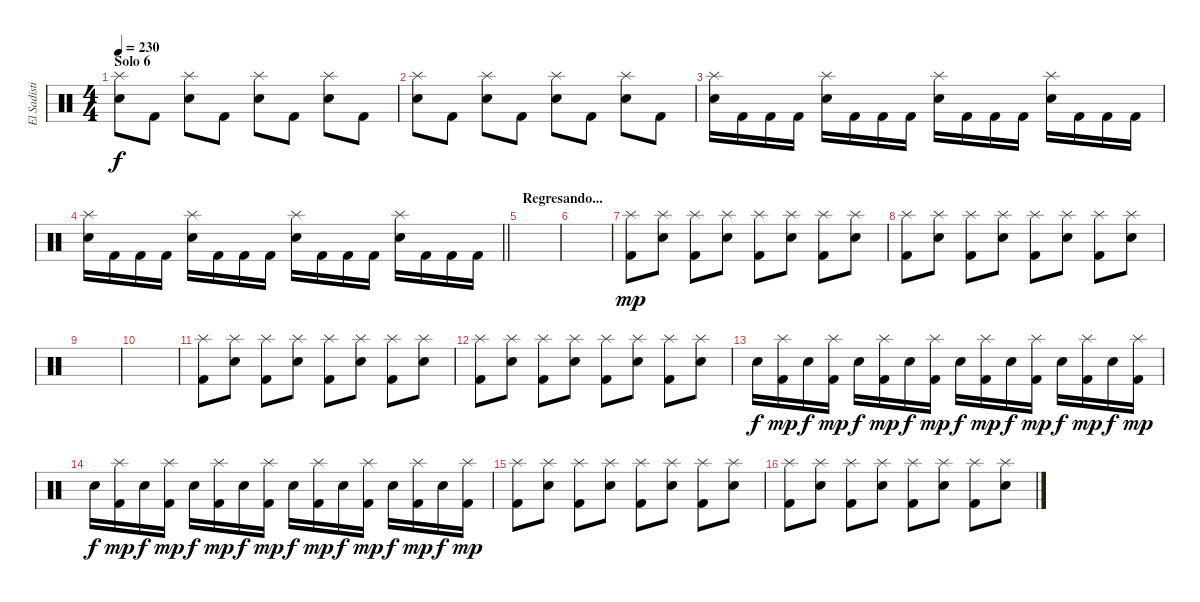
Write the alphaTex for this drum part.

\track ("El Sadistico" "El Sadisti") {instrument percussion}
\staff {score}
\articulation defaults
\ts (4 4)
\section ("" "Solo 6")
\tempo 230
\clef neutral
\ks c
("Splash (hit)" "Electric Snare (hit)").8{dy f} "Kick (hit) 2".8 ("Splash (hit)" "Electric Snare (hit)").8 "Kick (hit) 2".8 ("Splash (hit)" "Electric Snare (hit)").8 "Kick (hit) 2".8 ("Splash (hit)" "Electric Snare (hit)").8 "Kick (hit) 2".8 |
("Splash (hit)" "Electric Snare (hit)").8 "Kick (hit) 2".8 ("Splash (hit)" "Electric Snare (hit)").8 "Kick (hit) 2".8 ("Splash (hit)" "Electric Snare (hit)").8 "Kick (hit) 2".8 ("Splash (hit)" "Electric Snare (hit)").8 "Kick (hit) 2".8 |
("Splash (hit)" "Electric Snare (hit)").16 "Kick (hit) 2".16 "Kick (hit) 2".16 "Kick (hit) 2".16 ("Splash (hit)" "Electric Snare (hit)").16 "Kick (hit) 2".16 "Kick (hit) 2".16 "Kick (hit) 2".16 ("Splash (hit)" "Electric Snare (hit)").16 "Kick (hit) 2".16 "Kick (hit) 2".16 "Kick (hit) 2".16 ("Splash (hit)" "Electric Snare (hit)").16 "Kick (hit) 2".16 "Kick (hit) 2".16 "Kick (hit) 2".16 |
\barLineRight lightlight
("Splash (hit)" "Electric Snare (hit)").16 "Kick (hit) 2".16 "Kick (hit) 2".16 "Kick (hit) 2".16 ("Splash (hit)" "Electric Snare (hit)").16 "Kick (hit) 2".16 "Kick (hit) 2".16 "Kick (hit) 2".16 ("Splash (hit)" "Electric Snare (hit)").16 "Kick (hit) 2".16 "Kick (hit) 2".16 "Kick (hit) 2".16 ("Splash (hit)" "Electric Snare (hit)").16 "Kick (hit) 2".16 "Kick (hit) 2".16 "Kick (hit) 2".16 |
\section ("" "Regresando...")
|
|
("Splash (hit)" "Kick (hit) 2").8{dy mp} ("Splash (hit)" "Electric Snare (hit)").8 ("Splash (hit)" "Kick (hit) 2").8 ("Splash (hit)" "Electric Snare (hit)").8 ("Splash (hit)" "Kick (hit) 2").8 ("Splash (hit)" "Electric Snare (hit)").8 ("Splash (hit)" "Kick (hit) 2").8 ("Splash (hit)" "Electric Snare (hit)").8 |
("Splash (hit)" "Kick (hit) 2").8 ("Splash (hit)" "Electric Snare (hit)").8 ("Splash (hit)" "Kick (hit) 2").8 ("Splash (hit)" "Electric Snare (hit)").8 ("Splash (hit)" "Kick (hit) 2").8 ("Splash (hit)" "Electric Snare (hit)").8 ("Splash (hit)" "Kick (hit) 2").8 ("Splash (hit)" "Electric Snare (hit)").8 |
|
|
("Splash (hit)" "Kick (hit) 2").8 ("Splash (hit)" "Electric Snare (hit)").8 ("Splash (hit)" "Kick (hit) 2").8 ("Splash (hit)" "Electric Snare (hit)").8 ("Splash (hit)" "Kick (hit) 2").8 ("Splash (hit)" "Electric Snare (hit)").8 ("Splash (hit)" "Kick (hit) 2").8 ("Splash (hit)" "Electric Snare (hit)").8 |
("Splash (hit)" "Kick (hit) 2").8 ("Splash (hit)" "Electric Snare (hit)").8 ("Splash (hit)" "Kick (hit) 2").8 ("Splash (hit)" "Electric Snare (hit)").8 ("Splash (hit)" "Kick (hit) 2").8 ("Splash (hit)" "Electric Snare (hit)").8 ("Splash (hit)" "Kick (hit) 2").8 ("Splash (hit)" "Electric Snare (hit)").8 |
"Electric Snare (hit)".16{dy f} ("Splash (hit)" "Kick (hit) 2").16{dy mp} "Electric Snare (hit)".16{dy f} ("Splash (hit)" "Kick (hit) 2").16{dy mp} "Electric Snare (hit)".16{dy f} ("Splash (hit)" "Kick (hit) 2").16{dy mp} "Electric Snare (hit)".16{dy f} ("Splash (hit)" "Kick (hit) 2").16{dy mp} "Electric Snare (hit)".16{dy f} ("Splash (hit)" "Kick (hit) 2").16{dy mp} "Electric Snare (hit)".16{dy f} ("Splash (hit)" "Kick (hit) 2").16{dy mp} "Electric Snare (hit)".16{dy f} ("Splash (hit)" "Kick (hit) 2").16{dy mp} "Electric Snare (hit)".16{dy f} ("Splash (hit)" "Kick (hit) 2").16{dy mp} |
"Electric Snare (hit)".16{dy f} ("Splash (hit)" "Kick (hit) 2").16{dy mp} "Electric Snare (hit)".16{dy f} ("Splash (hit)" "Kick (hit) 2").16{dy mp} "Electric Snare (hit)".16{dy f} ("Splash (hit)" "Kick (hit) 2").16{dy mp} "Electric Snare (hit)".16{dy f} ("Splash (hit)" "Kick (hit) 2").16{dy mp} "Electric Snare (hit)".16{dy f} ("Splash (hit)" "Kick (hit) 2").16{dy mp} "Electric Snare (hit)".16{dy f} ("Splash (hit)" "Kick (hit) 2").16{dy mp} "Electric Snare (hit)".16{dy f} ("Splash (hit)" "Kick (hit) 2").16{dy mp} "Electric Snare (hit)".16{dy f} ("Splash (hit)" "Kick (hit) 2").16{dy mp} |
("Splash (hit)" "Kick (hit) 2").8 ("Splash (hit)" "Electric Snare (hit)").8 ("Splash (hit)" "Kick (hit) 2").8 ("Splash (hit)" "Electric Snare (hit)").8 ("Splash (hit)" "Kick (hit) 2").8 ("Splash (hit)" "Electric Snare (hit)").8 ("Splash (hit)" "Kick (hit) 2").8 ("Splash (hit)" "Electric Snare (hit)").8 |
("Splash (hit)" "Kick (hit) 2").8 ("Splash (hit)" "Electric Snare (hit)").8 ("Splash (hit)" "Kick (hit) 2").8 ("Splash (hit)" "Electric Snare (hit)").8 ("Splash (hit)" "Kick (hit) 2").8 ("Splash (hit)" "Electric Snare (hit)").8 ("Splash (hit)" "Kick (hit) 2").8 ("Splash (hit)" "Electric Snare (hit)").8
